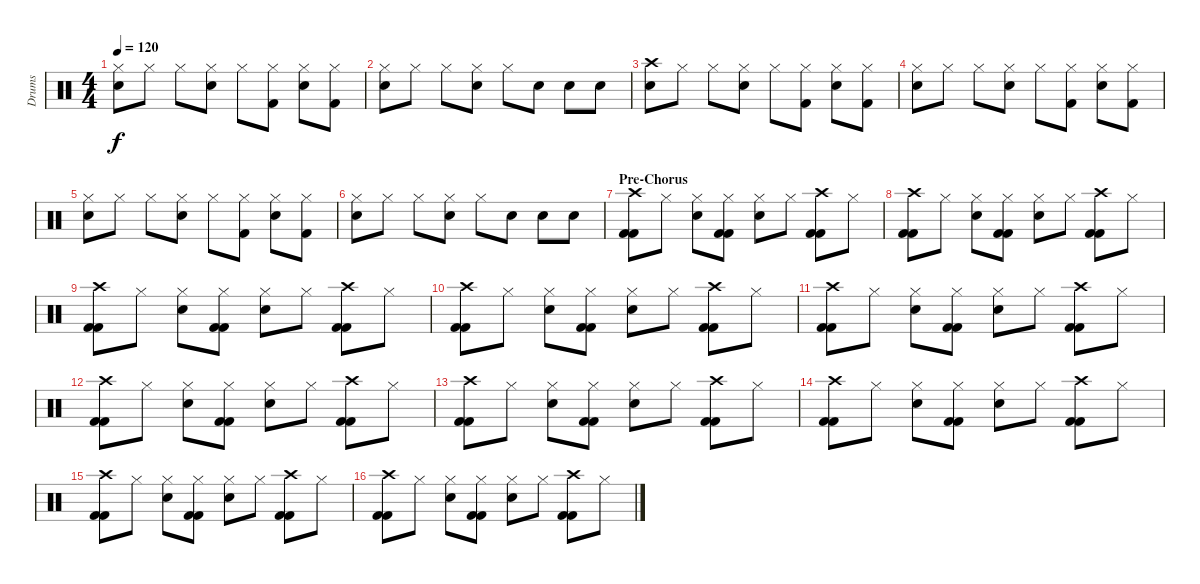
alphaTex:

\track ("Drums" "Drums") {instrument percussion}
\staff {score}
\articulation defaults
\ts (4 4)
\tempo 120
\clef neutral
\ks c
("Hi-Hat (closed)" "Snare (hit) 2").8{dy f} "Hi-Hat (closed)".8 "Hi-Hat (closed)".8 ("Hi-Hat (closed)" "Snare (hit) 2").8 "Hi-Hat (closed)".8 ("Hi-Hat (closed)" "Kick (hit) 2").8 ("Hi-Hat (closed)" "Snare (hit) 2").8 ("Hi-Hat (closed)" "Kick (hit) 2").8 |
("Hi-Hat (closed)" "Snare (hit) 2").8 "Hi-Hat (closed)".8 "Hi-Hat (closed)".8 ("Hi-Hat (closed)" "Snare (hit) 2").8 "Hi-Hat (closed)".8 "Snare (hit) 2".8 "Snare (hit) 2".8 "Snare (hit) 2".8 |
("Crash high (hit)" "Snare (hit) 2").8 "Hi-Hat (closed)".8 "Hi-Hat (closed)".8 ("Hi-Hat (closed)" "Snare (hit) 2").8 "Hi-Hat (closed)".8 ("Hi-Hat (closed)" "Kick (hit) 2").8 ("Hi-Hat (closed)" "Snare (hit) 2").8 ("Hi-Hat (closed)" "Kick (hit) 2").8 |
("Hi-Hat (closed)" "Snare (hit) 2").8 "Hi-Hat (closed)".8 "Hi-Hat (closed)".8 ("Hi-Hat (closed)" "Snare (hit) 2").8 "Hi-Hat (closed)".8 ("Hi-Hat (closed)" "Kick (hit) 2").8 ("Hi-Hat (closed)" "Snare (hit) 2").8 ("Hi-Hat (closed)" "Kick (hit) 2").8 |
("Hi-Hat (closed)" "Snare (hit) 2").8 "Hi-Hat (closed)".8 "Hi-Hat (closed)".8 ("Hi-Hat (closed)" "Snare (hit) 2").8 "Hi-Hat (closed)".8 ("Hi-Hat (closed)" "Kick (hit) 2").8 ("Hi-Hat (closed)" "Snare (hit) 2").8 ("Hi-Hat (closed)" "Kick (hit) 2").8 |
("Hi-Hat (closed)" "Snare (hit) 2").8 "Hi-Hat (closed)".8 "Hi-Hat (closed)".8 ("Hi-Hat (closed)" "Snare (hit) 2").8 "Hi-Hat (closed)".8 "Snare (hit) 2".8 "Snare (hit) 2".8 "Snare (hit) 2".8 |
\section ("" "Pre-Chorus")
("Crash high (hit)" "Kick (hit) 2" "Kick (hit) 2").8 "Hi-Hat (closed)".8 ("Hi-Hat (closed)" "Snare (hit) 2").8 ("Hi-Hat (closed)" "Kick (hit) 2" "Kick (hit) 2").8 ("Hi-Hat (closed)" "Snare (hit) 2").8 "Hi-Hat (closed)".8 ("Crash high (hit)" "Kick (hit) 2" "Kick (hit) 2").8 "Hi-Hat (closed)".8 |
("Crash high (hit)" "Kick (hit) 2" "Kick (hit) 2").8 "Hi-Hat (closed)".8 ("Hi-Hat (closed)" "Snare (hit) 2").8 ("Hi-Hat (closed)" "Kick (hit) 2" "Kick (hit) 2").8 ("Hi-Hat (closed)" "Snare (hit) 2").8 "Hi-Hat (closed)".8 ("Crash high (hit)" "Kick (hit) 2" "Kick (hit) 2").8 "Hi-Hat (closed)".8 |
("Crash high (hit)" "Kick (hit) 2" "Kick (hit) 2").8 "Hi-Hat (closed)".8 ("Hi-Hat (closed)" "Snare (hit) 2").8 ("Hi-Hat (closed)" "Kick (hit) 2" "Kick (hit) 2").8 ("Hi-Hat (closed)" "Snare (hit) 2").8 "Hi-Hat (closed)".8 ("Crash high (hit)" "Kick (hit) 2" "Kick (hit) 2").8 "Hi-Hat (closed)".8 |
("Crash high (hit)" "Kick (hit) 2" "Kick (hit) 2").8 "Hi-Hat (closed)".8 ("Hi-Hat (closed)" "Snare (hit) 2").8 ("Hi-Hat (closed)" "Kick (hit) 2" "Kick (hit) 2").8 ("Hi-Hat (closed)" "Snare (hit) 2").8 "Hi-Hat (closed)".8 ("Crash high (hit)" "Kick (hit) 2" "Kick (hit) 2").8 "Hi-Hat (closed)".8 |
("Crash high (hit)" "Kick (hit) 2" "Kick (hit) 2").8 "Hi-Hat (closed)".8 ("Hi-Hat (closed)" "Snare (hit) 2").8 ("Hi-Hat (closed)" "Kick (hit) 2" "Kick (hit) 2").8 ("Hi-Hat (closed)" "Snare (hit) 2").8 "Hi-Hat (closed)".8 ("Crash high (hit)" "Kick (hit) 2" "Kick (hit) 2").8 "Hi-Hat (closed)".8 |
("Crash high (hit)" "Kick (hit) 2" "Kick (hit) 2").8 "Hi-Hat (closed)".8 ("Hi-Hat (closed)" "Snare (hit) 2").8 ("Hi-Hat (closed)" "Kick (hit) 2" "Kick (hit) 2").8 ("Hi-Hat (closed)" "Snare (hit) 2").8 "Hi-Hat (closed)".8 ("Crash high (hit)" "Kick (hit) 2" "Kick (hit) 2").8 "Hi-Hat (closed)".8 |
("Crash high (hit)" "Kick (hit) 2" "Kick (hit) 2").8 "Hi-Hat (closed)".8 ("Hi-Hat (closed)" "Snare (hit) 2").8 ("Hi-Hat (closed)" "Kick (hit) 2" "Kick (hit) 2").8 ("Hi-Hat (closed)" "Snare (hit) 2").8 "Hi-Hat (closed)".8 ("Crash high (hit)" "Kick (hit) 2" "Kick (hit) 2").8 "Hi-Hat (closed)".8 |
("Crash high (hit)" "Kick (hit) 2" "Kick (hit) 2").8 "Hi-Hat (closed)".8 ("Hi-Hat (closed)" "Snare (hit) 2").8 ("Hi-Hat (closed)" "Kick (hit) 2" "Kick (hit) 2").8 ("Hi-Hat (closed)" "Snare (hit) 2").8 "Hi-Hat (closed)".8 ("Crash high (hit)" "Kick (hit) 2" "Kick (hit) 2").8 "Hi-Hat (closed)".8 |
("Crash high (hit)" "Kick (hit) 2" "Kick (hit) 2").8 "Hi-Hat (closed)".8 ("Hi-Hat (closed)" "Snare (hit) 2").8 ("Hi-Hat (closed)" "Kick (hit) 2" "Kick (hit) 2").8 ("Hi-Hat (closed)" "Snare (hit) 2").8 "Hi-Hat (closed)".8 ("Crash high (hit)" "Kick (hit) 2" "Kick (hit) 2").8 "Hi-Hat (closed)".8 |
("Crash high (hit)" "Kick (hit) 2" "Kick (hit) 2").8 "Hi-Hat (closed)".8 ("Hi-Hat (closed)" "Snare (hit) 2").8 ("Hi-Hat (closed)" "Kick (hit) 2" "Kick (hit) 2").8 ("Hi-Hat (closed)" "Snare (hit) 2").8 "Hi-Hat (closed)".8 ("Crash high (hit)" "Kick (hit) 2" "Kick (hit) 2").8 "Hi-Hat (closed)".8
